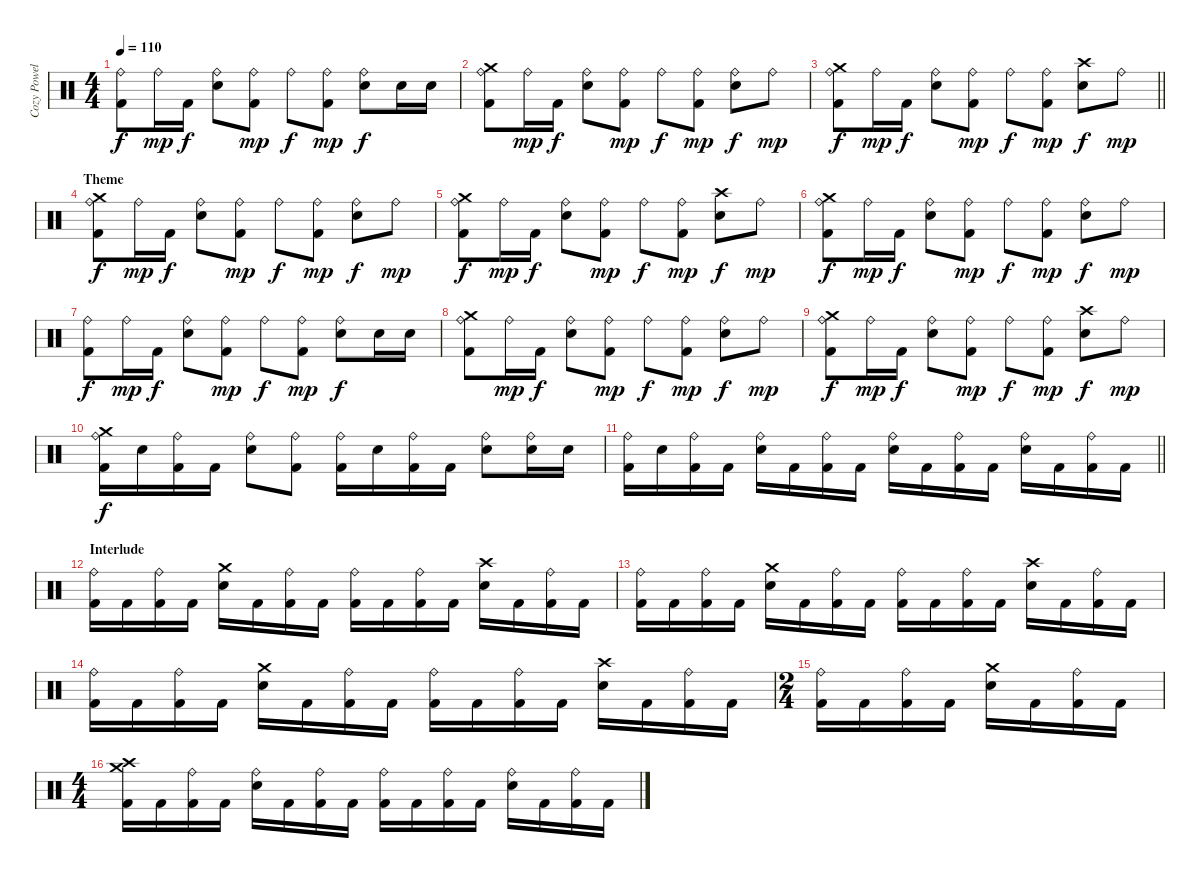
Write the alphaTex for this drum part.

\track ("Cozy Powell" "Cozy Powel") {instrument percussion}
\staff {score}
\articulation defaults
\ts (4 4)
\tempo 110
\clef neutral
\ks c
("Ride (bell)" "Kick (hit) 2").8{dy f} "Ride (bell)".16{dy mp} "Kick (hit) 2".16{dy f} ("Ride (bell)" "Snare (hit) 2").8 ("Ride (bell)" "Kick (hit) 2").8{dy mp} "Ride (bell)".8{dy f} ("Ride (bell)" "Kick (hit) 2").8{dy mp} ("Ride (bell)" "Snare (hit) 2").8{dy f} "Snare (hit) 2".16 "Snare (hit) 2".16 |
("Crash medium (hit)" "Ride (bell)" "Kick (hit) 2").8 "Ride (bell)".16{dy mp} "Kick (hit) 2".16{dy f} ("Ride (bell)" "Snare (hit) 2").8 ("Ride (bell)" "Kick (hit) 2").8{dy mp} "Ride (bell)".8{dy f} ("Ride (bell)" "Kick (hit) 2").8{dy mp} ("Ride (bell)" "Snare (hit) 2").8{dy f} "Ride (bell)".8{dy mp} |
\barLineRight lightlight
("Crash medium (hit)" "Ride (bell)" "Kick (hit) 2").8{dy f} "Ride (bell)".16{dy mp} "Kick (hit) 2".16{dy f} ("Ride (bell)" "Snare (hit) 2").8 ("Ride (bell)" "Kick (hit) 2").8{dy mp} "Ride (bell)".8{dy f} ("Ride (bell)" "Kick (hit) 2").8{dy mp} ("Crash high (hit)" "Snare (hit) 2").8{dy f} "Ride (bell)".8{dy mp} |
\section ("" "Theme")
("Crash medium (hit)" "Ride (bell)" "Kick (hit) 2").8{dy f} "Ride (bell)".16{dy mp} "Kick (hit) 2".16{dy f} ("Ride (bell)" "Snare (hit) 2").8 ("Ride (bell)" "Kick (hit) 2").8{dy mp} "Ride (bell)".8{dy f} ("Ride (bell)" "Kick (hit) 2").8{dy mp} ("Ride (bell)" "Snare (hit) 2").8{dy f} "Ride (bell)".8{dy mp} |
("Crash medium (hit)" "Ride (bell)" "Kick (hit) 2").8{dy f} "Ride (bell)".16{dy mp} "Kick (hit) 2".16{dy f} ("Ride (bell)" "Snare (hit) 2").8 ("Ride (bell)" "Kick (hit) 2").8{dy mp} "Ride (bell)".8{dy f} ("Ride (bell)" "Kick (hit) 2").8{dy mp} ("Crash high (hit)" "Snare (hit) 2").8{dy f} "Ride (bell)".8{dy mp} |
("Crash medium (hit)" "Ride (bell)" "Kick (hit) 2").8{dy f} "Ride (bell)".16{dy mp} "Kick (hit) 2".16{dy f} ("Ride (bell)" "Snare (hit) 2").8 ("Ride (bell)" "Kick (hit) 2").8{dy mp} "Ride (bell)".8{dy f} ("Ride (bell)" "Kick (hit) 2").8{dy mp} ("Ride (bell)" "Snare (hit) 2").8{dy f} "Ride (bell)".8{dy mp} |
("Ride (bell)" "Kick (hit) 2").8{dy f} "Ride (bell)".16{dy mp} "Kick (hit) 2".16{dy f} ("Ride (bell)" "Snare (hit) 2").8 ("Ride (bell)" "Kick (hit) 2").8{dy mp} "Ride (bell)".8{dy f} ("Ride (bell)" "Kick (hit) 2").8{dy mp} ("Ride (bell)" "Snare (hit) 2").8{dy f} "Snare (hit) 2".16 "Snare (hit) 2".16 |
("Crash medium (hit)" "Ride (bell)" "Kick (hit) 2").8 "Ride (bell)".16{dy mp} "Kick (hit) 2".16{dy f} ("Ride (bell)" "Snare (hit) 2").8 ("Ride (bell)" "Kick (hit) 2").8{dy mp} "Ride (bell)".8{dy f} ("Ride (bell)" "Kick (hit) 2").8{dy mp} ("Ride (bell)" "Snare (hit) 2").8{dy f} "Ride (bell)".8{dy mp} |
("Crash medium (hit)" "Ride (bell)" "Kick (hit) 2").8{dy f} "Ride (bell)".16{dy mp} "Kick (hit) 2".16{dy f} ("Ride (bell)" "Snare (hit) 2").8 ("Ride (bell)" "Kick (hit) 2").8{dy mp} "Ride (bell)".8{dy f} ("Ride (bell)" "Kick (hit) 2").8{dy mp} ("Crash high (hit)" "Snare (hit) 2").8{dy f} "Ride (bell)".8{dy mp} |
("Crash medium (hit)" "Ride (bell)" "Kick (hit) 2").16{dy f} "Snare (hit) 2".16 ("Ride (bell)" "Kick (hit) 2").16 "Kick (hit) 2".16 ("Ride (bell)" "Snare (hit) 2").8 ("Ride (bell)" "Kick (hit) 2").8 ("Ride (bell)" "Kick (hit) 2").16 "Snare (hit) 2".16 ("Ride (bell)" "Kick (hit) 2").16 "Kick (hit) 2".16 ("Ride (bell)" "Snare (hit) 2").8 ("Ride (bell)" "Snare (hit) 2").16 "Snare (hit) 2".16 |
\barLineRight lightlight
("Ride (bell)" "Kick (hit) 2").16 "Snare (hit) 2".16 ("Ride (bell)" "Kick (hit) 2").16 "Kick (hit) 2".16 ("Ride (bell)" "Snare (hit) 2").16 "Kick (hit) 2".16 ("Ride (bell)" "Kick (hit) 2").16 "Kick (hit) 2".16 ("Ride (bell)" "Snare (hit) 2").16 "Kick (hit) 2".16 ("Ride (bell)" "Kick (hit) 2").16 "Kick (hit) 2".16 ("Ride (bell)" "Snare (hit) 2").16 "Kick (hit) 2".16 ("Ride (bell)" "Kick (hit) 2").16 "Kick (hit) 2".16 |
\section ("" "Interlude")
("Ride (bell)" "Kick (hit) 2").16 "Kick (hit) 2".16 ("Ride (bell)" "Kick (hit) 2").16 "Kick (hit) 2".16 ("Crash medium (hit)" "Snare (hit) 2").16 "Kick (hit) 2".16 ("Ride (bell)" "Kick (hit) 2").16 "Kick (hit) 2".16 ("Ride (bell)" "Kick (hit) 2").16 "Kick (hit) 2".16 ("Ride (bell)" "Kick (hit) 2").16 "Kick (hit) 2".16 ("Crash high (hit)" "Snare (hit) 2").16 "Kick (hit) 2".16 ("Ride (bell)" "Kick (hit) 2").16 "Kick (hit) 2".16 |
("Ride (bell)" "Kick (hit) 2").16 "Kick (hit) 2".16 ("Ride (bell)" "Kick (hit) 2").16 "Kick (hit) 2".16 ("Crash medium (hit)" "Snare (hit) 2").16 "Kick (hit) 2".16 ("Ride (bell)" "Kick (hit) 2").16 "Kick (hit) 2".16 ("Ride (bell)" "Kick (hit) 2").16 "Kick (hit) 2".16 ("Ride (bell)" "Kick (hit) 2").16 "Kick (hit) 2".16 ("Crash high (hit)" "Snare (hit) 2").16 "Kick (hit) 2".16 ("Ride (bell)" "Kick (hit) 2").16 "Kick (hit) 2".16 |
("Ride (bell)" "Kick (hit) 2").16 "Kick (hit) 2".16 ("Ride (bell)" "Kick (hit) 2").16 "Kick (hit) 2".16 ("Crash medium (hit)" "Snare (hit) 2").16 "Kick (hit) 2".16 ("Ride (bell)" "Kick (hit) 2").16 "Kick (hit) 2".16 ("Ride (bell)" "Kick (hit) 2").16 "Kick (hit) 2".16 ("Ride (bell)" "Kick (hit) 2").16 "Kick (hit) 2".16 ("Crash high (hit)" "Snare (hit) 2").16 "Kick (hit) 2".16 ("Ride (bell)" "Kick (hit) 2").16 "Kick (hit) 2".16 |
\ts (2 4)
("Ride (bell)" "Kick (hit) 2").16 "Kick (hit) 2".16 ("Ride (bell)" "Kick (hit) 2").16 "Kick (hit) 2".16 ("Crash medium (hit)" "Snare (hit) 2").16 "Kick (hit) 2".16 ("Ride (bell)" "Kick (hit) 2").16 "Kick (hit) 2".16 |
\ts (4 4)
("Crash medium (hit)" "Crash high (hit)" "Kick (hit) 2").16 "Kick (hit) 2".16 ("Ride (bell)" "Kick (hit) 2").16 "Kick (hit) 2".16 ("Ride (bell)" "Snare (hit) 2").16 "Kick (hit) 2".16 ("Ride (bell)" "Kick (hit) 2").16 "Kick (hit) 2".16 ("Ride (bell)" "Kick (hit) 2").16 "Kick (hit) 2".16 ("Ride (bell)" "Kick (hit) 2").16 "Kick (hit) 2".16 ("Ride (bell)" "Snare (hit) 2").16 "Kick (hit) 2".16 ("Ride (bell)" "Kick (hit) 2").16 "Kick (hit) 2".16
